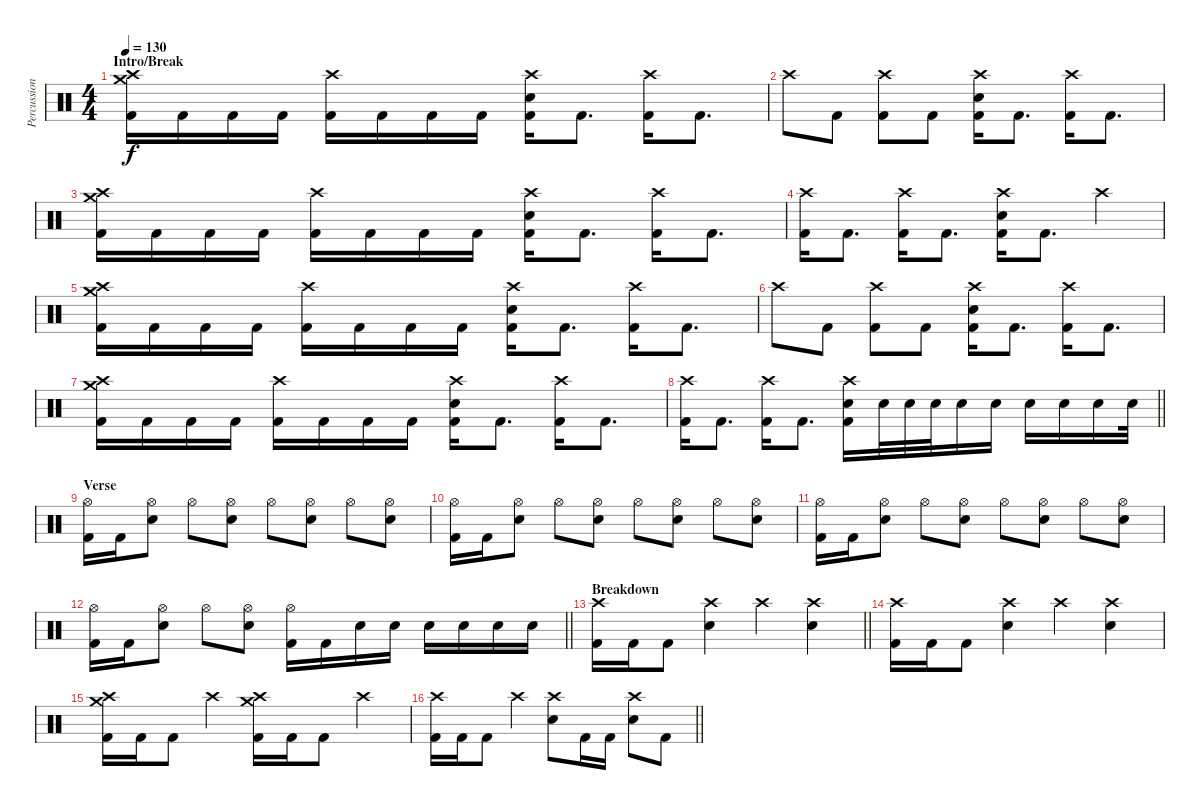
\track ("Percussion" "Percussion") {instrument percussion}
\staff {score}
\articulation defaults
\ts (4 4)
\section ("" "Intro/Break")
\tempo 130
\clef neutral
\ks c
("Crash high (hit)" "Crash medium (hit)" "Kick (hit) 2").16{dy f} "Kick (hit) 2".16 "Kick (hit) 2".16 "Kick (hit) 2".16 ("Crash high (hit)" "Kick (hit) 2").16 "Kick (hit) 2".16 "Kick (hit) 2".16 "Kick (hit) 2".16 ("Crash high (hit)" "Electric Snare (hit)" "Kick (hit) 2").16 "Kick (hit) 2".8{d} ("Crash high (hit)" "Kick (hit) 2").16 "Kick (hit) 2".8{d} |
"Crash high (hit)".8 "Kick (hit) 2".8 ("Crash high (hit)" "Kick (hit) 2").8 "Kick (hit) 2".8 ("Crash high (hit)" "Electric Snare (hit)" "Kick (hit) 2").16 "Kick (hit) 2".8{d} ("Crash high (hit)" "Kick (hit) 2").16 "Kick (hit) 2".8{d} |
("Crash high (hit)" "Crash medium (hit)" "Kick (hit) 2").16 "Kick (hit) 2".16 "Kick (hit) 2".16 "Kick (hit) 2".16 ("Crash high (hit)" "Kick (hit) 2").16 "Kick (hit) 2".16 "Kick (hit) 2".16 "Kick (hit) 2".16 ("Crash high (hit)" "Electric Snare (hit)" "Kick (hit) 2").16 "Kick (hit) 2".8{d} ("Crash high (hit)" "Kick (hit) 2").16 "Kick (hit) 2".8{d} |
("Crash high (hit)" "Kick (hit) 2").16 "Kick (hit) 2".8{d} ("Crash high (hit)" "Kick (hit) 2").16 "Kick (hit) 2".8{d} ("Crash high (hit)" "Electric Snare (hit)" "Kick (hit) 2").16 "Kick (hit) 2".8{d} "Crash high (hit)".4 |
("Crash high (hit)" "Crash medium (hit)" "Kick (hit) 2").16 "Kick (hit) 2".16 "Kick (hit) 2".16 "Kick (hit) 2".16 ("Crash high (hit)" "Kick (hit) 2").16 "Kick (hit) 2".16 "Kick (hit) 2".16 "Kick (hit) 2".16 ("Crash high (hit)" "Electric Snare (hit)" "Kick (hit) 2").16 "Kick (hit) 2".8{d} ("Crash high (hit)" "Kick (hit) 2").16 "Kick (hit) 2".8{d} |
"Crash high (hit)".8 "Kick (hit) 2".8 ("Crash high (hit)" "Kick (hit) 2").8 "Kick (hit) 2".8 ("Crash high (hit)" "Electric Snare (hit)" "Kick (hit) 2").16 "Kick (hit) 2".8{d} ("Crash high (hit)" "Kick (hit) 2").16 "Kick (hit) 2".8{d} |
("Crash high (hit)" "Crash medium (hit)" "Kick (hit) 2").16 "Kick (hit) 2".16 "Kick (hit) 2".16 "Kick (hit) 2".16 ("Crash high (hit)" "Kick (hit) 2").16 "Kick (hit) 2".16 "Kick (hit) 2".16 "Kick (hit) 2".16 ("Crash high (hit)" "Electric Snare (hit)" "Kick (hit) 2").16 "Kick (hit) 2".8{d} ("Crash high (hit)" "Kick (hit) 2").16 "Kick (hit) 2".8{d} |
\barLineRight lightlight
("Crash high (hit)" "Kick (hit) 2").16 "Kick (hit) 2".8{d} ("Crash high (hit)" "Kick (hit) 2").16 "Kick (hit) 2".8{d} ("Crash high (hit)" "Electric Snare (hit)" "Kick (hit) 2").16 "Electric Snare (hit)".32 "Electric Snare (hit)".32 "Electric Snare (hit)".32 "Electric Snare (hit)".16 "Electric Snare (hit)".16 "Electric Snare (hit)".16 "Electric Snare (hit)".16 "Electric Snare (hit)".16 "Electric Snare (hit)".32 |
\section ("" "Verse")
("Hi-Hat (open)" "Kick (hit) 2").16 "Kick (hit) 2".16 ("Hi-Hat (open)" "Electric Snare (hit)").8 "Hi-Hat (open)".8 ("Hi-Hat (open)" "Electric Snare (hit)").8 "Hi-Hat (open)".8 ("Hi-Hat (open)" "Electric Snare (hit)").8 "Hi-Hat (open)".8 ("Hi-Hat (open)" "Electric Snare (hit)").8 |
("Hi-Hat (open)" "Kick (hit) 2").16 "Kick (hit) 2".16 ("Hi-Hat (open)" "Electric Snare (hit)").8 "Hi-Hat (open)".8 ("Hi-Hat (open)" "Electric Snare (hit)").8 "Hi-Hat (open)".8 ("Hi-Hat (open)" "Electric Snare (hit)").8 "Hi-Hat (open)".8 ("Hi-Hat (open)" "Electric Snare (hit)").8 |
("Hi-Hat (open)" "Kick (hit) 2").16 "Kick (hit) 2".16 ("Hi-Hat (open)" "Electric Snare (hit)").8 "Hi-Hat (open)".8 ("Hi-Hat (open)" "Electric Snare (hit)").8 "Hi-Hat (open)".8 ("Hi-Hat (open)" "Electric Snare (hit)").8 "Hi-Hat (open)".8 ("Hi-Hat (open)" "Electric Snare (hit)").8 |
\barLineRight lightlight
("Hi-Hat (open)" "Kick (hit) 2").16 "Kick (hit) 2".16 ("Hi-Hat (open)" "Electric Snare (hit)").8 "Hi-Hat (open)".8 ("Hi-Hat (open)" "Electric Snare (hit)").8 ("Hi-Hat (open)" "Kick (hit) 2").16 "Kick (hit) 2".16 "Electric Snare (hit)".16 "Electric Snare (hit)".16 "Electric Snare (hit)".16 "Electric Snare (hit)".16 "Electric Snare (hit)".16 "Electric Snare (hit)".16 |
\section ("" "Breakdown")
\barLineRight lightlight
("Crash high (hit)" "Kick (hit) 2").16 "Kick (hit) 2".16 "Kick (hit) 2".8 ("Crash high (hit)" "Electric Snare (hit)").4 "Crash high (hit)".4 ("Crash high (hit)" "Electric Snare (hit)").4 |
("Crash high (hit)" "Kick (hit) 2").16 "Kick (hit) 2".16 "Kick (hit) 2".8 ("Crash high (hit)" "Electric Snare (hit)").4 "Crash high (hit)".4 ("Crash high (hit)" "Electric Snare (hit)").4 |
("Crash high (hit)" "Crash medium (hit)" "Kick (hit) 2").16 "Kick (hit) 2".16 "Kick (hit) 2".8 "Crash high (hit)".4 ("Crash high (hit)" "Crash medium (hit)" "Kick (hit) 2").16 "Kick (hit) 2".16 "Kick (hit) 2".8 "Crash high (hit)".4 |
\barLineRight lightlight
("Crash high (hit)" "Kick (hit) 2").16 "Kick (hit) 2".16 "Kick (hit) 2".8 "Crash high (hit)".4 ("Crash high (hit)" "Electric Snare (hit)").8 "Kick (hit) 2".16 "Kick (hit) 2".16 ("Crash high (hit)" "Electric Snare (hit)").8 "Kick (hit) 2".8
